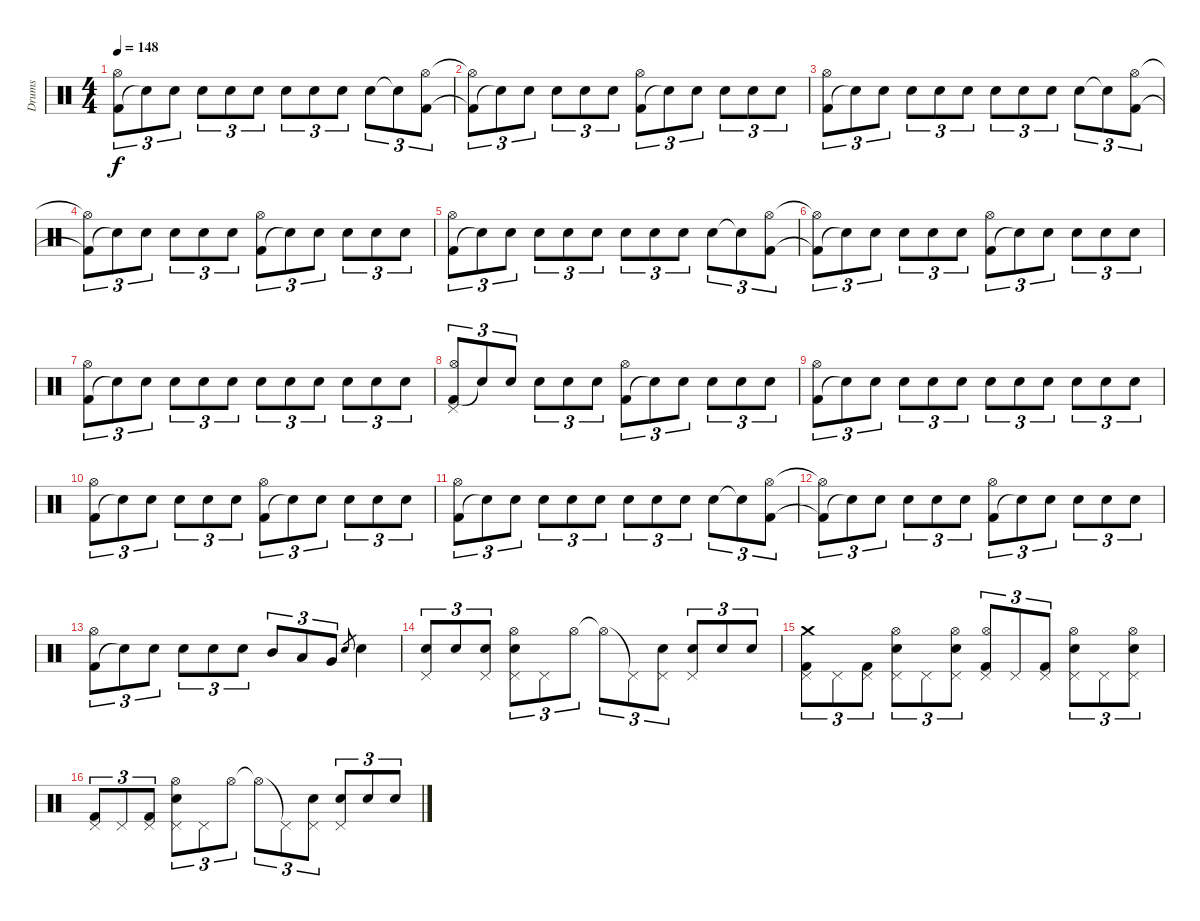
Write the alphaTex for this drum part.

\track ("Drums" "Drums") {instrument percussion}
\staff {score}
\articulation defaults
\ts (4 4)
\tempo 148
\clef neutral
\ks c
("Kick (hit) 2" "Hi-Hat (open)").8{tu (3 2) dy f} "Snare (hit)"{t}.8{tu (3 2)} "Snare (hit) 2".8{tu (3 2)} "Snare (hit) 2".8{tu (3 2)} "Snare (hit) 2".8{tu (3 2)} "Snare (hit) 2".8{tu (3 2)} "Snare (hit) 2".8{tu (3 2)} "Snare (hit) 2".8{tu (3 2)} "Snare (hit) 2".8{tu (3 2)} "Snare (hit) 2".8{tu (3 2)} "Snare (hit) 2"{t}.8{tu (3 2)} ("Kick (hit) 2" "Hi-Hat (open)").8{tu (3 2)} |
("Kick (hit) 2"{t} "Hi-Hat (open)"{t}).8{tu (3 2)} "Snare (hit)"{t}.8{tu (3 2)} "Snare (hit) 2".8{tu (3 2)} "Snare (hit) 2".8{tu (3 2)} "Snare (hit) 2".8{tu (3 2)} "Snare (hit) 2".8{tu (3 2)} ("Kick (hit) 2" "Hi-Hat (open)").8{tu (3 2)} "Snare (hit)"{t}.8{tu (3 2)} "Snare (hit) 2".8{tu (3 2)} "Snare (hit) 2".8{tu (3 2)} "Snare (hit) 2".8{tu (3 2)} "Snare (hit) 2".8{tu (3 2)} |
("Kick (hit) 2" "Hi-Hat (open)").8{tu (3 2)} "Snare (hit)"{t}.8{tu (3 2)} "Snare (hit) 2".8{tu (3 2)} "Snare (hit) 2".8{tu (3 2)} "Snare (hit) 2".8{tu (3 2)} "Snare (hit) 2".8{tu (3 2)} "Snare (hit) 2".8{tu (3 2)} "Snare (hit) 2".8{tu (3 2)} "Snare (hit) 2".8{tu (3 2)} "Snare (hit) 2".8{tu (3 2)} "Snare (hit) 2"{t}.8{tu (3 2)} ("Kick (hit) 2" "Hi-Hat (open)").8{tu (3 2)} |
("Kick (hit) 2"{t} "Hi-Hat (open)"{t}).8{tu (3 2)} "Snare (hit)"{t}.8{tu (3 2)} "Snare (hit) 2".8{tu (3 2)} "Snare (hit) 2".8{tu (3 2)} "Snare (hit) 2".8{tu (3 2)} "Snare (hit) 2".8{tu (3 2)} ("Kick (hit) 2" "Hi-Hat (open)").8{tu (3 2)} "Snare (hit)"{t}.8{tu (3 2)} "Snare (hit) 2".8{tu (3 2)} "Snare (hit) 2".8{tu (3 2)} "Snare (hit) 2".8{tu (3 2)} "Snare (hit) 2".8{tu (3 2)} |
("Kick (hit) 2" "Hi-Hat (open)").8{tu (3 2)} "Snare (hit)"{t}.8{tu (3 2)} "Snare (hit) 2".8{tu (3 2)} "Snare (hit) 2".8{tu (3 2)} "Snare (hit) 2".8{tu (3 2)} "Snare (hit) 2".8{tu (3 2)} "Snare (hit) 2".8{tu (3 2)} "Snare (hit) 2".8{tu (3 2)} "Snare (hit) 2".8{tu (3 2)} "Snare (hit) 2".8{tu (3 2)} "Snare (hit) 2"{t}.8{tu (3 2)} ("Kick (hit) 2" "Hi-Hat (open)").8{tu (3 2)} |
("Kick (hit) 2"{t} "Hi-Hat (open)"{t}).8{tu (3 2)} "Snare (hit)"{t}.8{tu (3 2)} "Snare (hit) 2".8{tu (3 2)} "Snare (hit) 2".8{tu (3 2)} "Snare (hit) 2".8{tu (3 2)} "Snare (hit) 2".8{tu (3 2)} ("Kick (hit) 2" "Hi-Hat (open)").8{tu (3 2)} "Snare (hit)"{t}.8{tu (3 2)} "Snare (hit) 2".8{tu (3 2)} "Snare (hit) 2".8{tu (3 2)} "Snare (hit) 2".8{tu (3 2)} "Snare (hit) 2".8{tu (3 2)} |
("Kick (hit) 2" "Hi-Hat (open)").8{tu (3 2)} "Snare (hit)"{t}.8{tu (3 2)} "Snare (hit) 2".8{tu (3 2)} "Snare (hit) 2".8{tu (3 2)} "Snare (hit) 2".8{tu (3 2)} "Snare (hit) 2".8{tu (3 2)} "Snare (hit) 2".8{tu (3 2)} "Snare (hit) 2".8{tu (3 2)} "Snare (hit) 2".8{tu (3 2)} "Snare (hit) 2".8{tu (3 2)} "Snare (hit) 2".8{tu (3 2)} "Snare (hit) 2".8{tu (3 2)} |
("Kick (hit) 2" "Pedal Hi-Hat (hit)" "Hi-Hat (open)").8{tu (3 2)} "Snare (hit)"{t}.8{tu (3 2)} "Snare (hit) 2".8{tu (3 2)} "Snare (hit) 2".8{tu (3 2)} "Snare (hit) 2".8{tu (3 2)} "Snare (hit) 2".8{tu (3 2)} ("Kick (hit) 2" "Hi-Hat (open)").8{tu (3 2)} "Snare (hit)"{t}.8{tu (3 2)} "Snare (hit) 2".8{tu (3 2)} "Snare (hit) 2".8{tu (3 2)} "Snare (hit) 2".8{tu (3 2)} "Snare (hit) 2".8{tu (3 2)} |
("Kick (hit) 2" "Hi-Hat (open)").8{tu (3 2)} "Snare (hit)"{t}.8{tu (3 2)} "Snare (hit) 2".8{tu (3 2)} "Snare (hit) 2".8{tu (3 2)} "Snare (hit) 2".8{tu (3 2)} "Snare (hit) 2".8{tu (3 2)} "Snare (hit) 2".8{tu (3 2)} "Snare (hit) 2".8{tu (3 2)} "Snare (hit) 2".8{tu (3 2)} "Snare (hit) 2".8{tu (3 2)} "Snare (hit) 2".8{tu (3 2)} "Snare (hit) 2".8{tu (3 2)} |
("Kick (hit) 2" "Hi-Hat (open)").8{tu (3 2)} "Snare (hit)"{t}.8{tu (3 2)} "Snare (hit) 2".8{tu (3 2)} "Snare (hit) 2".8{tu (3 2)} "Snare (hit) 2".8{tu (3 2)} "Snare (hit) 2".8{tu (3 2)} ("Kick (hit) 2" "Hi-Hat (open)").8{tu (3 2)} "Snare (hit)"{t}.8{tu (3 2)} "Snare (hit) 2".8{tu (3 2)} "Snare (hit) 2".8{tu (3 2)} "Snare (hit) 2".8{tu (3 2)} "Snare (hit) 2".8{tu (3 2)} |
("Kick (hit) 2" "Hi-Hat (open)").8{tu (3 2)} "Snare (hit)"{t}.8{tu (3 2)} "Snare (hit) 2".8{tu (3 2)} "Snare (hit) 2".8{tu (3 2)} "Snare (hit) 2".8{tu (3 2)} "Snare (hit) 2".8{tu (3 2)} "Snare (hit) 2".8{tu (3 2)} "Snare (hit) 2".8{tu (3 2)} "Snare (hit) 2".8{tu (3 2)} "Snare (hit) 2".8{tu (3 2)} "Snare (hit) 2"{t}.8{tu (3 2)} ("Kick (hit) 2" "Hi-Hat (open)").8{tu (3 2)} |
("Kick (hit) 2"{t} "Hi-Hat (open)"{t}).8{tu (3 2)} "Snare (hit)"{t}.8{tu (3 2)} "Snare (hit) 2".8{tu (3 2)} "Snare (hit) 2".8{tu (3 2)} "Snare (hit) 2".8{tu (3 2)} "Snare (hit) 2".8{tu (3 2)} ("Kick (hit) 2" "Hi-Hat (open)").8{tu (3 2)} "Snare (hit)"{t}.8{tu (3 2)} "Snare (hit) 2".8{tu (3 2)} "Snare (hit) 2".8{tu (3 2)} "Snare (hit) 2".8{tu (3 2)} "Snare (hit) 2".8{tu (3 2)} |
("Kick (hit) 2" "Hi-Hat (open)").8{tu (3 2)} "Snare (hit)"{t}.8{tu (3 2)} "Snare (hit) 2".8{tu (3 2)} "Snare (hit) 2".8{tu (3 2)} "Snare (hit) 2".8{tu (3 2)} "Snare (hit) 2".8{tu (3 2)} "Mid Tom (hit)".8{tu (3 2)} "Low Tom (hit)".8{tu (3 2)} "Very Low Tom (hit)".8{tu (3 2)} "Snare (hit) 2".8{gr} "Snare (hit) 2".4 |
("Snare (hit) 2" "Pedal Hi-Hat (hit)").8{tu (3 2)} "Snare (hit) 2".8{tu (3 2)} ("Snare (hit) 2" "Pedal Hi-Hat (hit)").8{tu (3 2)} ("Snare (hit) 2" "Pedal Hi-Hat (hit)" "Hi-Hat (open)").8{tu (3 2)} "Pedal Hi-Hat (hit)".8{tu (3 2)} "Hi-Hat (open)".8{tu (3 2)} "Hi-Hat (open)"{t}.8{tu (3 2)} "Pedal Hi-Hat (hit)"{t}.8{tu (3 2)} ("Snare (hit) 2" "Pedal Hi-Hat (hit)").8{tu (3 2)} ("Snare (hit) 2" "Pedal Hi-Hat (hit)").8{tu (3 2)} "Snare (hit) 2".8{tu (3 2)} "Snare (hit) 2".8{tu (3 2)} |
("Kick (hit) 2" "Pedal Hi-Hat (hit)" "Crash medium (hit)").8{tu (3 2)} "Pedal Hi-Hat (hit)".8{tu (3 2)} ("Kick (hit) 2" "Pedal Hi-Hat (hit)").8{tu (3 2)} ("Snare (hit) 2" "Pedal Hi-Hat (hit)" "Hi-Hat (open)").8{tu (3 2)} "Pedal Hi-Hat (hit)".8{tu (3 2)} ("Snare (hit) 2" "Pedal Hi-Hat (hit)" "Hi-Hat (open)").8{tu (3 2)} ("Kick (hit) 2" "Pedal Hi-Hat (hit)" "Hi-Hat (open)").8{tu (3 2)} "Pedal Hi-Hat (hit)".8{tu (3 2)} ("Kick (hit) 2" "Pedal Hi-Hat (hit)").8{tu (3 2)} ("Snare (hit) 2" "Pedal Hi-Hat (hit)" "Hi-Hat (open)").8{tu (3 2)} "Pedal Hi-Hat (hit)".8{tu (3 2)} ("Snare (hit) 2" "Pedal Hi-Hat (hit)" "Hi-Hat (open)").8{tu (3 2)} |
("Kick (hit) 2" "Pedal Hi-Hat (hit)").8{tu (3 2)} "Pedal Hi-Hat (hit)".8{tu (3 2)} ("Kick (hit) 2" "Pedal Hi-Hat (hit)").8{tu (3 2)} ("Snare (hit) 2" "Pedal Hi-Hat (hit)" "Hi-Hat (open)").8{tu (3 2)} "Pedal Hi-Hat (hit)".8{tu (3 2)} "Hi-Hat (open)".8{tu (3 2)} "Hi-Hat (open)"{t}.8{tu (3 2)} "Pedal Hi-Hat (hit)"{t}.8{tu (3 2)} ("Snare (hit) 2" "Pedal Hi-Hat (hit)").8{tu (3 2)} ("Snare (hit) 2" "Pedal Hi-Hat (hit)").8{tu (3 2)} "Snare (hit) 2".8{tu (3 2)} "Snare (hit) 2".8{tu (3 2)}
